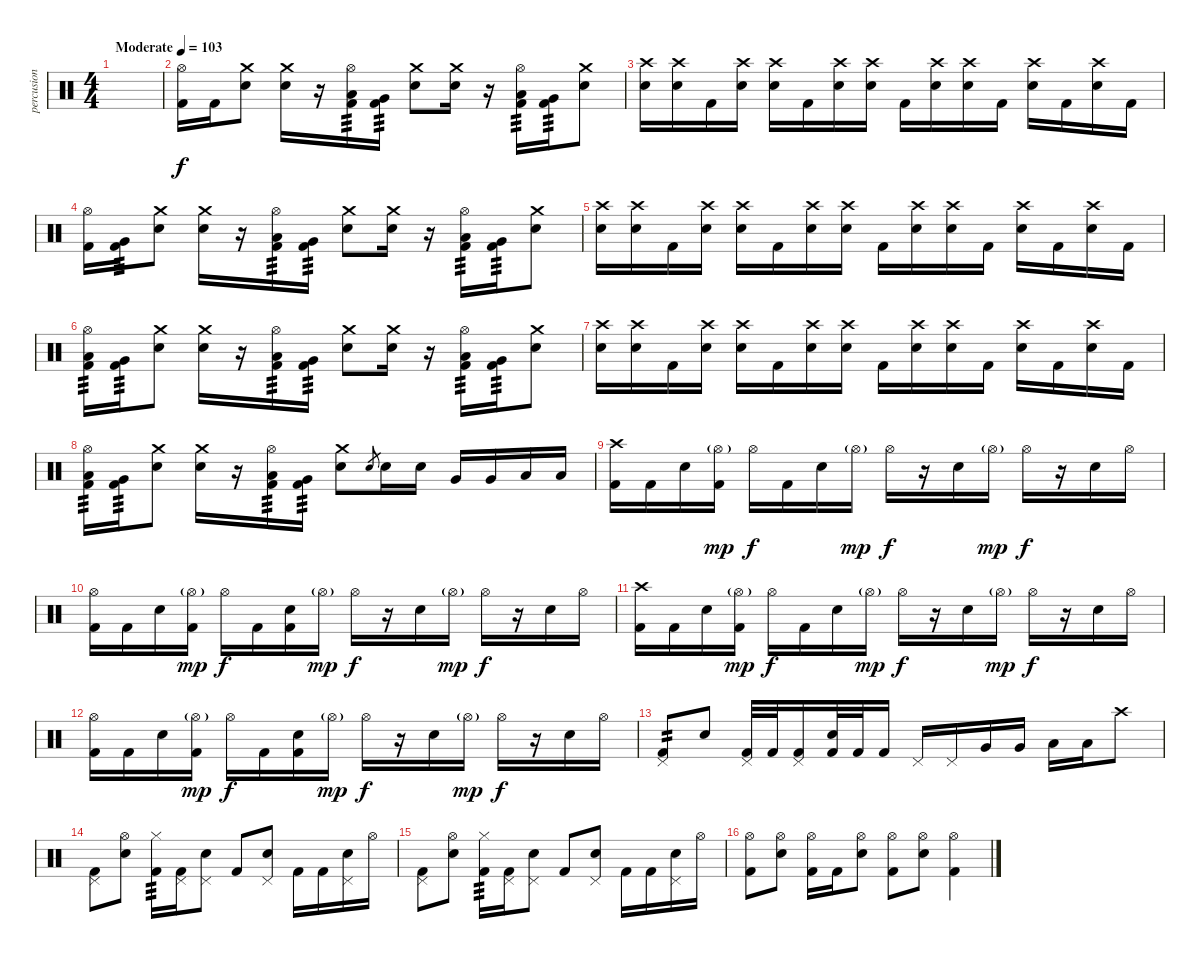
\track ("percusion" "percusion") {instrument percussion}
\staff {score}
\articulation defaults
\ts (4 4)
\tempo (103 "Moderate")
\clef neutral
\ks c
|
("Hi-Hat (open)" "Kick (hit) 2").16 "Kick (hit) 2".16 ("Crash medium (hit)" "Electric Snare (hit)").8 ("Crash medium (hit)" "Electric Snare (hit)").16 r.16 ("Hi-Hat (open)" "Low Tom (hit)" "Kick (hit) 2").16{tp 3} ("Very Low Tom (hit)" "Kick (hit) 2").16{tp 3} ("Crash medium (hit)" "Electric Snare (hit)").8 ("Crash medium (hit)" "Electric Snare (hit)").16 r.16 ("Hi-Hat (open)" "Low Tom (hit)" "Kick (hit) 2").16{tp 3} ("Very Low Tom (hit)" "Kick (hit) 2").16{tp 3} ("Crash medium (hit)" "Electric Snare (hit)").8 |
("Crash high (hit)" "Electric Snare (hit)").16 ("Crash high (hit)" "Electric Snare (hit)").16 "Kick (hit) 2".16 ("Crash high (hit)" "Electric Snare (hit)").16 ("Crash high (hit)" "Electric Snare (hit)").16 "Kick (hit) 2".16 ("Crash high (hit)" "Electric Snare (hit)").16 ("Crash high (hit)" "Electric Snare (hit)").16 "Kick (hit) 2".16 ("Crash high (hit)" "Electric Snare (hit)").16 ("Crash high (hit)" "Electric Snare (hit)").16 "Kick (hit) 2".16 ("Crash high (hit)" "Electric Snare (hit)").16 "Kick (hit) 2".16 ("Crash high (hit)" "Electric Snare (hit)").16 "Kick (hit) 2".16 |
("Hi-Hat (open)" "Kick (hit) 2").16 ("Very Low Tom (hit)" "Kick (hit) 2").16{tp 3} ("Crash medium (hit)" "Electric Snare (hit)").8 ("Crash medium (hit)" "Electric Snare (hit)").16 r.16 ("Hi-Hat (open)" "Low Tom (hit)" "Kick (hit) 2").16{tp 3} ("Very Low Tom (hit)" "Kick (hit) 2").16{tp 3} ("Crash medium (hit)" "Electric Snare (hit)").8 ("Crash medium (hit)" "Electric Snare (hit)").16 r.16 ("Hi-Hat (open)" "Low Tom (hit)" "Kick (hit) 2").16{tp 3} ("Very Low Tom (hit)" "Kick (hit) 2").16{tp 3} ("Crash medium (hit)" "Electric Snare (hit)").8 |
("Crash high (hit)" "Electric Snare (hit)").16 ("Crash high (hit)" "Electric Snare (hit)").16 "Kick (hit) 2".16 ("Crash high (hit)" "Electric Snare (hit)").16 ("Crash high (hit)" "Electric Snare (hit)").16 "Kick (hit) 2".16 ("Crash high (hit)" "Electric Snare (hit)").16 ("Crash high (hit)" "Electric Snare (hit)").16 "Kick (hit) 2".16 ("Crash high (hit)" "Electric Snare (hit)").16 ("Crash high (hit)" "Electric Snare (hit)").16 "Kick (hit) 2".16 ("Crash high (hit)" "Electric Snare (hit)").16 "Kick (hit) 2".16 ("Crash high (hit)" "Electric Snare (hit)").16 "Kick (hit) 2".16 |
("Hi-Hat (open)" "Low Tom (hit)" "Kick (hit) 2").16{tp 3} ("Very Low Tom (hit)" "Kick (hit) 2").16{tp 3} ("Crash medium (hit)" "Electric Snare (hit)").8 ("Crash medium (hit)" "Electric Snare (hit)").16 r.16 ("Hi-Hat (open)" "Low Tom (hit)" "Kick (hit) 2").16{tp 3} ("Very Low Tom (hit)" "Kick (hit) 2").16{tp 3} ("Crash medium (hit)" "Electric Snare (hit)").8 ("Crash medium (hit)" "Electric Snare (hit)").16 r.16 ("Hi-Hat (open)" "Low Tom (hit)" "Kick (hit) 2").16{tp 3} ("Very Low Tom (hit)" "Kick (hit) 2").16{tp 3} ("Crash medium (hit)" "Electric Snare (hit)").8 |
("Crash high (hit)" "Electric Snare (hit)").16 ("Crash high (hit)" "Electric Snare (hit)").16 "Kick (hit) 2".16 ("Crash high (hit)" "Electric Snare (hit)").16 ("Crash high (hit)" "Electric Snare (hit)").16 "Kick (hit) 2".16 ("Crash high (hit)" "Electric Snare (hit)").16 ("Crash high (hit)" "Electric Snare (hit)").16 "Kick (hit) 2".16 ("Crash high (hit)" "Electric Snare (hit)").16 ("Crash high (hit)" "Electric Snare (hit)").16 "Kick (hit) 2".16 ("Crash high (hit)" "Electric Snare (hit)").16 "Kick (hit) 2".16 ("Crash high (hit)" "Electric Snare (hit)").16 "Kick (hit) 2".16 |
("Hi-Hat (open)" "Low Tom (hit)" "Kick (hit) 2").16{tp 3} ("Very Low Tom (hit)" "Kick (hit) 2").16{tp 3} ("Crash medium (hit)" "Electric Snare (hit)").8 ("Crash medium (hit)" "Electric Snare (hit)").16 r.16 ("Hi-Hat (open)" "Low Tom (hit)" "Kick (hit) 2").16{tp 3} ("Very Low Tom (hit)" "Kick (hit) 2").16{tp 3} ("Crash medium (hit)" "Electric Snare (hit)").8 "Electric Snare (hit)".8{gr} "Electric Snare (hit)".16 "Electric Snare (hit)".16 "Very Low Tom (hit)".16 "Very Low Tom (hit)".16 "Low Tom (hit)".16 "Low Tom (hit)".16 |
("Crash high (hit)" "Kick (hit) 2").16 "Kick (hit) 2".16 "Electric Snare (hit)".16 ("Hi-Hat (open)"{g} "Kick (hit) 2").16{dy mp} "Hi-Hat (open)".16{dy f} "Kick (hit) 2".16 "Electric Snare (hit)".16 "Hi-Hat (open)"{g}.16{dy mp} "Hi-Hat (open)".16{dy f} r.16 "Electric Snare (hit)".16 "Hi-Hat (open)"{g}.16{dy mp} "Hi-Hat (open)".16{dy f} r.16 "Electric Snare (hit)".16 "Hi-Hat (open)".16 |
("Hi-Hat (open)" "Kick (hit) 2").16 "Kick (hit) 2".16 "Electric Snare (hit)".16 ("Hi-Hat (open)"{g} "Kick (hit) 2").16{dy mp} "Hi-Hat (open)".16{dy f} "Kick (hit) 2".16 ("Electric Snare (hit)" "Kick (hit) 2").16 "Hi-Hat (open)"{g}.16{dy mp} "Hi-Hat (open)".16{dy f} r.16 "Electric Snare (hit)".16 "Hi-Hat (open)"{g}.16{dy mp} "Hi-Hat (open)".16{dy f} r.16 "Electric Snare (hit)".16 "Hi-Hat (open)".16 |
("Crash high (hit)" "Kick (hit) 2").16 "Kick (hit) 2".16 "Electric Snare (hit)".16 ("Hi-Hat (open)"{g} "Kick (hit) 2").16{dy mp} "Hi-Hat (open)".16{dy f} "Kick (hit) 2".16 "Electric Snare (hit)".16 "Hi-Hat (open)"{g}.16{dy mp} "Hi-Hat (open)".16{dy f} r.16 "Electric Snare (hit)".16 "Hi-Hat (open)"{g}.16{dy mp} "Hi-Hat (open)".16{dy f} r.16 "Electric Snare (hit)".16 "Hi-Hat (open)".16 |
("Hi-Hat (open)" "Kick (hit) 2").16 "Kick (hit) 2".16 "Electric Snare (hit)".16 ("Hi-Hat (open)"{g} "Kick (hit) 2").16{dy mp} "Hi-Hat (open)".16{dy f} "Kick (hit) 2".16 ("Electric Snare (hit)" "Kick (hit) 2").16 "Hi-Hat (open)"{g}.16{dy mp} "Hi-Hat (open)".16{dy f} r.16 "Electric Snare (hit)".16 "Hi-Hat (open)"{g}.16{dy mp} "Hi-Hat (open)".16{dy f} r.16 "Electric Snare (hit)".16 "Hi-Hat (open)".16 |
("Pedal Hi-Hat (hit)" "Kick (hit) 2").8{tp 2} "Electric Snare (hit)".8 ("Pedal Hi-Hat (hit)" "Kick (hit) 2").32 "Kick (hit) 2".32 ("Pedal Hi-Hat (hit)" "Kick (hit) 2").16 ("Electric Snare (hit)" "Kick (hit) 2").32 "Kick (hit) 2".32 "Kick (hit) 2".16 "Pedal Hi-Hat (hit)".16 "Pedal Hi-Hat (hit)".16 "Very Low Tom (hit)".16 "Very Low Tom (hit)".16 "Low Tom (hit)".16 "Low Tom (hit)".16 "Crash high (hit)".8 |
("Pedal Hi-Hat (hit)" "Kick (hit) 2").8 ("Hi-Hat (open)" "Electric Snare (hit)").8 ("Hi-Hat (closed)" "Kick (hit) 2").16{tp 3} ("Pedal Hi-Hat (hit)" "Kick (hit) 2").16 ("Pedal Hi-Hat (hit)" "Electric Snare (hit)").8 "Kick (hit) 2".8 ("Pedal Hi-Hat (hit)" "Electric Snare (hit)").8 "Kick (hit) 2".16 "Kick (hit) 2".16 ("Pedal Hi-Hat (hit)" "Electric Snare (hit)").16 "Hi-Hat (open)".16 |
("Pedal Hi-Hat (hit)" "Kick (hit) 2").8 ("Hi-Hat (open)" "Electric Snare (hit)").8 ("Hi-Hat (closed)" "Kick (hit) 2").16{tp 3} ("Pedal Hi-Hat (hit)" "Kick (hit) 2").16 ("Pedal Hi-Hat (hit)" "Electric Snare (hit)").8 "Kick (hit) 2".8 ("Pedal Hi-Hat (hit)" "Electric Snare (hit)").8 "Kick (hit) 2".16 "Kick (hit) 2".16 ("Pedal Hi-Hat (hit)" "Electric Snare (hit)").16 "Hi-Hat (open)".16 |
("Hi-Hat (open)" "Kick (hit) 2").8 ("Hi-Hat (open)" "Electric Snare (hit)").8 ("Hi-Hat (open)" "Kick (hit) 2").16 "Kick (hit) 2".16 ("Hi-Hat (open)" "Electric Snare (hit)").8 ("Hi-Hat (open)" "Kick (hit) 2").8 ("Hi-Hat (open)" "Electric Snare (hit)").8 ("Hi-Hat (open)" "Kick (hit) 2").4
